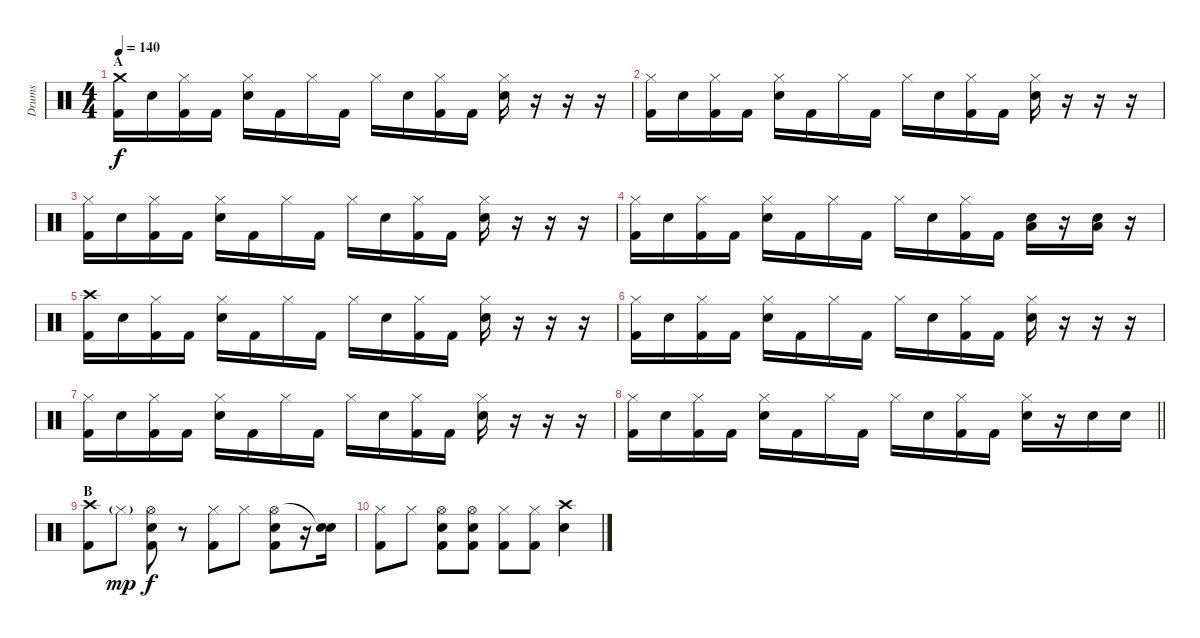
\track ("Drums" "Drums") {instrument percussion}
\staff {score}
\articulation defaults
\ts (4 4)
\section ("" "A")
\tempo 140
\clef neutral
\ks c
("Crash medium (hit)" "Kick (hit) 2").16{dy f} "Snare (hit) 2".16 ("Hi-Hat (closed)" "Kick (hit) 2").16 "Kick (hit) 2".16 ("Hi-Hat (closed)" "Snare (hit) 2").16 "Kick (hit) 2".16 "Hi-Hat (closed)".16 "Kick (hit) 2".16 "Hi-Hat (closed)".16 "Snare (hit) 2".16 ("Hi-Hat (closed)" "Kick (hit) 2").16 "Kick (hit) 2".16 ("Hi-Hat (closed)" "Snare (hit) 2").16 r.16 r.16 r.16 |
("Hi-Hat (closed)" "Kick (hit) 2").16 "Snare (hit) 2".16 ("Hi-Hat (closed)" "Kick (hit) 2").16 "Kick (hit) 2".16 ("Hi-Hat (closed)" "Snare (hit) 2").16 "Kick (hit) 2".16 "Hi-Hat (closed)".16 "Kick (hit) 2".16 "Hi-Hat (closed)".16 "Snare (hit) 2".16 ("Hi-Hat (closed)" "Kick (hit) 2").16 "Kick (hit) 2".16 ("Hi-Hat (closed)" "Snare (hit) 2").16 r.16 r.16 r.16 |
("Hi-Hat (closed)" "Kick (hit) 2").16 "Snare (hit) 2".16 ("Hi-Hat (closed)" "Kick (hit) 2").16 "Kick (hit) 2".16 ("Hi-Hat (closed)" "Snare (hit) 2").16 "Kick (hit) 2".16 "Hi-Hat (closed)".16 "Kick (hit) 2".16 "Hi-Hat (closed)".16 "Snare (hit) 2".16 ("Hi-Hat (closed)" "Kick (hit) 2").16 "Kick (hit) 2".16 ("Hi-Hat (closed)" "Snare (hit) 2").16 r.16 r.16 r.16 |
("Hi-Hat (closed)" "Kick (hit) 2").16 "Snare (hit) 2".16 ("Hi-Hat (closed)" "Kick (hit) 2").16 "Kick (hit) 2".16 ("Hi-Hat (closed)" "Snare (hit) 2").16 "Kick (hit) 2".16 "Hi-Hat (closed)".16 "Kick (hit) 2".16 "Hi-Hat (closed)".16 "Snare (hit) 2".16 ("Hi-Hat (closed)" "Kick (hit) 2").16 "Kick (hit) 2".16 ("Low Tom (hit)" "Snare (hit) 2").16 r.16 ("Low Tom (hit)" "Snare (hit) 2").16 r.16 |
("Crash high (hit)" "Kick (hit) 2").16 "Snare (hit) 2".16 ("Hi-Hat (closed)" "Kick (hit) 2").16 "Kick (hit) 2".16 ("Hi-Hat (closed)" "Snare (hit) 2").16 "Kick (hit) 2".16 "Hi-Hat (closed)".16 "Kick (hit) 2".16 "Hi-Hat (closed)".16 "Snare (hit) 2".16 ("Hi-Hat (closed)" "Kick (hit) 2").16 "Kick (hit) 2".16 ("Hi-Hat (closed)" "Snare (hit) 2").16 r.16 r.16 r.16 |
("Hi-Hat (closed)" "Kick (hit) 2").16 "Snare (hit) 2".16 ("Hi-Hat (closed)" "Kick (hit) 2").16 "Kick (hit) 2".16 ("Hi-Hat (closed)" "Snare (hit) 2").16 "Kick (hit) 2".16 "Hi-Hat (closed)".16 "Kick (hit) 2".16 "Hi-Hat (closed)".16 "Snare (hit) 2".16 ("Hi-Hat (closed)" "Kick (hit) 2").16 "Kick (hit) 2".16 ("Hi-Hat (closed)" "Snare (hit) 2").16 r.16 r.16 r.16 |
("Hi-Hat (closed)" "Kick (hit) 2").16 "Snare (hit) 2".16 ("Hi-Hat (closed)" "Kick (hit) 2").16 "Kick (hit) 2".16 ("Hi-Hat (closed)" "Snare (hit) 2").16 "Kick (hit) 2".16 "Hi-Hat (closed)".16 "Kick (hit) 2".16 "Hi-Hat (closed)".16 "Snare (hit) 2".16 ("Hi-Hat (closed)" "Kick (hit) 2").16 "Kick (hit) 2".16 ("Hi-Hat (closed)" "Snare (hit) 2").16 r.16 r.16 r.16 |
\barLineRight lightlight
("Hi-Hat (closed)" "Kick (hit) 2").16 "Snare (hit) 2".16 ("Hi-Hat (closed)" "Kick (hit) 2").16 "Kick (hit) 2".16 ("Hi-Hat (closed)" "Snare (hit) 2").16 "Kick (hit) 2".16 "Hi-Hat (closed)".16 "Kick (hit) 2".16 "Hi-Hat (closed)".16 "Snare (hit) 2".16 ("Hi-Hat (closed)" "Kick (hit) 2").16 "Kick (hit) 2".16 ("Hi-Hat (closed)" "Snare (hit) 2").16 r.16 "Snare (hit) 2".16 "Snare (hit) 2".16 |
\section ("" "B")
("Crash high (hit)" "Kick (hit) 2").8 "Hi-Hat (closed)"{g}.8{dy mp} ("Hi-Hat (open)" "Snare (hit) 2" "Kick (hit) 2").8{dy f} r.8 ("Hi-Hat (closed)" "Kick (hit) 2").8 "Hi-Hat (closed)".8 ("Hi-Hat (open)" "Snare (hit) 2" "Kick (hit) 2").8 r.16 ("Snare (hit)"{t} "Snare (hit) 2").16 |
("Hi-Hat (closed)" "Kick (hit) 2").8 "Hi-Hat (closed)".8 ("Hi-Hat (open)" "Snare (hit) 2" "Kick (hit) 2").8 ("Hi-Hat (open)" "Snare (hit) 2" "Kick (hit) 2").8 ("Hi-Hat (closed)" "Kick (hit) 2").8 ("Hi-Hat (closed)" "Kick (hit) 2").8 ("Crash high (hit)" "Snare (hit) 2").4
